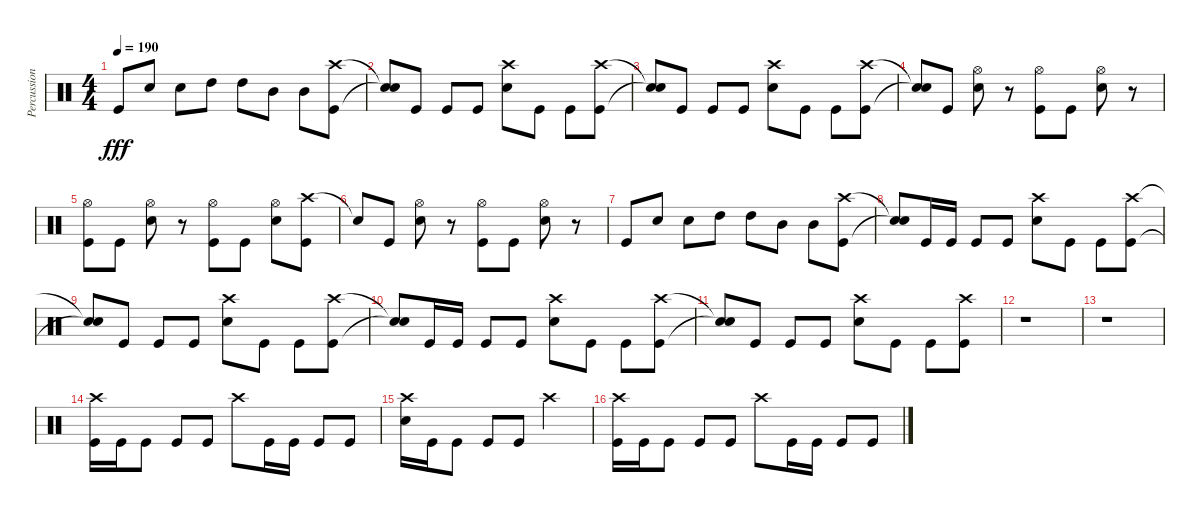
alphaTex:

\track ("Percussion" "Percussion") {instrument percussion}
\staff {score}
\articulation defaults
\ts (4 4)
\tempo 190
\clef neutral
\ks c "Kick (hit)".8{dy fff} "Snare (hit) 2".8 "Snare (hit) 2".8 "High Tom (hit)".8 "High Tom (hit)".8 "Mid Tom (hit)".8 "Mid Tom (hit)".8
("Crash high (hit)" "Kick (hit)").8 |
("Snare (hit)"{t} "Snare (hit)"{t}).8 "Kick (hit)".8 "Kick (hit)".8 "Kick (hit)".8 ("Crash high (hit)" "Snare (hit) 2").8 "Kick (hit)".8 "Kick (hit)".8 ("Crash high (hit)" "Kick (hit)").8 |
("Snare (hit)"{t} "Snare (hit)"{t}).8 "Kick (hit)".8 "Kick (hit)".8 "Kick (hit)".8 ("Crash high (hit)" "Snare (hit) 2").8 "Kick (hit)".8 "Kick (hit)".8 ("Crash high (hit)" "Kick (hit)").8 |
("Snare (hit)"{t} "Snare (hit)"{t}).8 "Kick (hit)".8 ("Hi-Hat (open)" "Snare (hit) 2").8 r.8 ("Hi-Hat (open)" "Kick (hit)").8 "Kick (hit)".8 ("Hi-Hat (open)" "Snare (hit) 2").8 r.8 |
("Hi-Hat (open)" "Kick (hit)").8 "Kick (hit)".8 ("Hi-Hat (open)" "Snare (hit) 2").8 r.8 ("Hi-Hat (open)" "Kick (hit)").8 "Kick (hit)".8 ("Hi-Hat (open)" "Snare (hit) 2").8 ("Crash high (hit)" "Kick (hit)").8 |
"Snare (hit)"{t}.8 "Kick (hit)".8 ("Hi-Hat (open)" "Snare (hit) 2").8 r.8 ("Hi-Hat (open)" "Kick (hit)").8 "Kick (hit)".8 ("Hi-Hat (open)" "Snare (hit) 2").8 r.8 |
"Kick (hit)".8 "Snare (hit) 2".8 "Snare (hit) 2".8 "High Tom (hit)".8 "High Tom (hit)".8 "Mid Tom (hit)".8 "Mid Tom (hit)".8 ("Crash high (hit)" "Kick (hit)").8 |
("Snare (hit)"{t} "Snare (hit)"{t}).8 "Kick (hit)".16 "Kick (hit)".16 "Kick (hit)".8 "Kick (hit)".8 ("Crash high (hit)" "Snare (hit) 2").8 "Kick (hit)".8 "Kick (hit)".8 ("Crash high (hit)" "Kick (hit)").8 |
("Snare (hit)"{t} "Snare (hit)"{t}).8 "Kick (hit)".8 "Kick (hit)".8 "Kick (hit)".8 ("Crash high (hit)" "Snare (hit) 2").8 "Kick (hit)".8 "Kick (hit)".8 ("Crash high (hit)" "Kick (hit)").8 |
("Snare (hit)"{t} "Snare (hit)"{t}).8 "Kick (hit)".16 "Kick (hit)".16 "Kick (hit)".8 "Kick (hit)".8 ("Crash high (hit)" "Snare (hit) 2").8 "Kick (hit)".8 "Kick (hit)".8 ("Crash high (hit)" "Kick (hit)").8 |
("Snare (hit)"{t} "Snare (hit)"{t}).8 "Kick (hit)".8 "Kick (hit)".8 "Kick (hit)".8 ("Crash high (hit)" "Snare (hit) 2").8 "Kick (hit)".8 "Kick (hit)".8 ("Crash high (hit)" "Kick (hit)").8 |
r.1 |
r.1 |
("Crash high (hit)" "Kick (hit)").16 "Kick (hit)".16 "Kick (hit)".8 "Kick (hit)".8 "Kick (hit)".8 "Crash high (hit)".8 "Kick (hit)".16 "Kick (hit)".16 "Kick (hit)".8 "Kick (hit)".8 |
("Crash high (hit)" "Snare (hit) 2").16 "Kick (hit)".16 "Kick (hit)".8 "Kick (hit)".8 "Kick (hit)".8 "Crash high (hit)".2 |
("Crash high (hit)" "Kick (hit)").16 "Kick (hit)".16 "Kick (hit)".8 "Kick (hit)".8 "Kick (hit)".8 "Crash high (hit)".8 "Kick (hit)".16 "Kick (hit)".16 "Kick (hit)".8 "Kick (hit)".8
